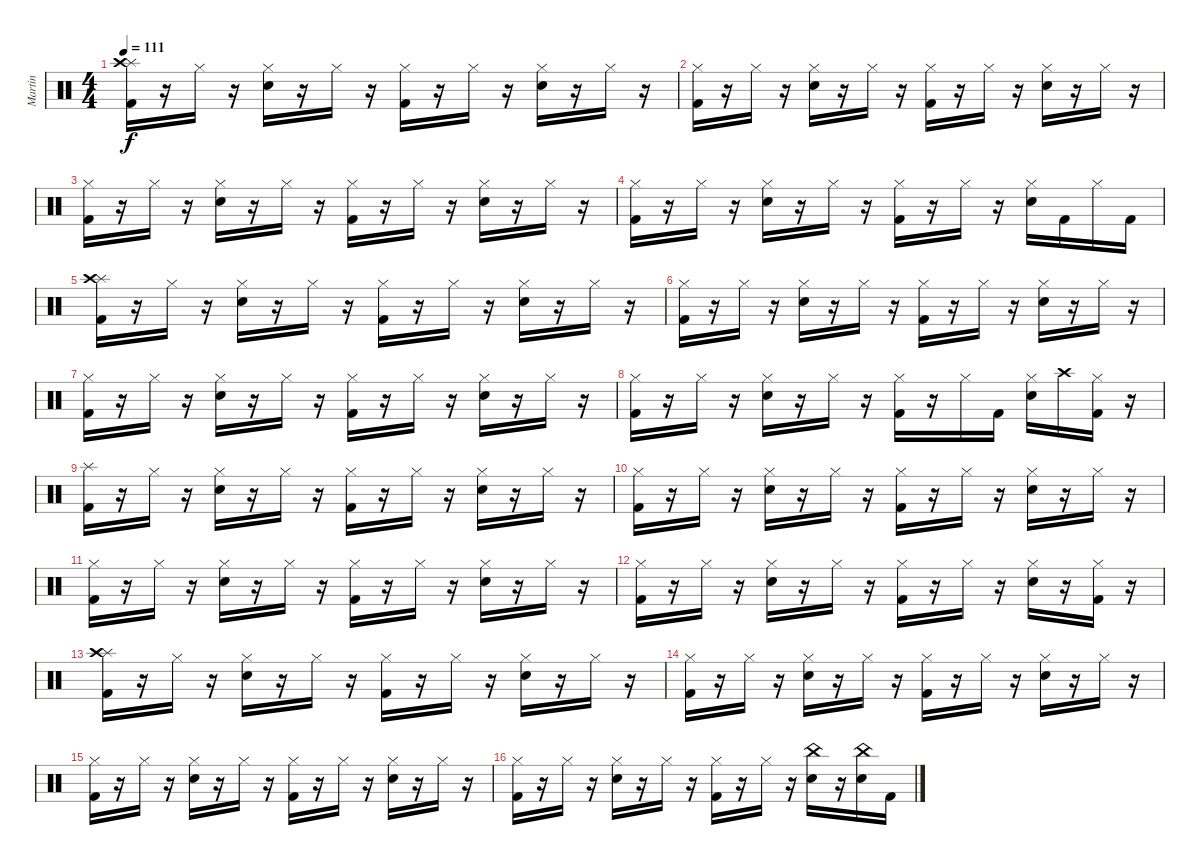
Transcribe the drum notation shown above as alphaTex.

\track ("Martin" "Martin") {instrument percussion}
\staff {score}
\articulation defaults
\ts (4 4)
\tempo 111
\clef neutral
\ks c
("Kick (hit) 2" "Splash (hit)" "Crash high (hit)").16{dy f} r.16 "Hi-Hat (closed)".16 r.16 ("Electric Snare (hit)" "Hi-Hat (closed)").16 r.16 "Hi-Hat (closed)".16 r.16 ("Kick (hit) 2" "Hi-Hat (closed)").16 r.16 "Hi-Hat (closed)".16 r.16 ("Electric Snare (hit)" "Hi-Hat (closed)").16 r.16 "Hi-Hat (closed)".16 r.16 |
("Kick (hit) 2" "Hi-Hat (closed)").16 r.16 "Hi-Hat (closed)".16 r.16 ("Electric Snare (hit)" "Hi-Hat (closed)").16 r.16 "Hi-Hat (closed)".16 r.16 ("Kick (hit) 2" "Hi-Hat (closed)").16 r.16 "Hi-Hat (closed)".16 r.16 ("Electric Snare (hit)" "Hi-Hat (closed)").16 r.16 "Hi-Hat (closed)".16 r.16 |
("Kick (hit) 2" "Hi-Hat (closed)").16 r.16 "Hi-Hat (closed)".16 r.16 ("Electric Snare (hit)" "Hi-Hat (closed)").16 r.16 "Hi-Hat (closed)".16 r.16 ("Kick (hit) 2" "Hi-Hat (closed)").16 r.16 "Hi-Hat (closed)".16 r.16 ("Electric Snare (hit)" "Hi-Hat (closed)").16 r.16 "Hi-Hat (closed)".16 r.16 |
("Kick (hit) 2" "Hi-Hat (closed)").16 r.16 "Hi-Hat (closed)".16 r.16 ("Electric Snare (hit)" "Hi-Hat (closed)").16 r.16 "Hi-Hat (closed)".16 r.16 ("Kick (hit) 2" "Hi-Hat (closed)").16 r.16 "Hi-Hat (closed)".16 r.16 ("Electric Snare (hit)" "Hi-Hat (closed)").16 "Kick (hit) 2".16 "Hi-Hat (closed)".16 "Kick (hit) 2".16 |
("Kick (hit) 2" "Splash (hit)" "Crash high (hit)").16 r.16 "Hi-Hat (closed)".16 r.16 ("Electric Snare (hit)" "Hi-Hat (closed)").16 r.16 "Hi-Hat (closed)".16 r.16 ("Kick (hit) 2" "Hi-Hat (closed)").16 r.16 "Hi-Hat (closed)".16 r.16 ("Electric Snare (hit)" "Hi-Hat (closed)").16 r.16 "Hi-Hat (closed)".16 r.16 |
("Kick (hit) 2" "Hi-Hat (closed)").16 r.16 "Hi-Hat (closed)".16 r.16 ("Electric Snare (hit)" "Hi-Hat (closed)").16 r.16 "Hi-Hat (closed)".16 r.16 ("Kick (hit) 2" "Hi-Hat (closed)").16 r.16 "Hi-Hat (closed)".16 r.16 ("Electric Snare (hit)" "Hi-Hat (closed)").16 r.16 "Hi-Hat (closed)".16 r.16 |
("Kick (hit) 2" "Hi-Hat (closed)").16 r.16 "Hi-Hat (closed)".16 r.16 ("Electric Snare (hit)" "Hi-Hat (closed)").16 r.16 "Hi-Hat (closed)".16 r.16 ("Kick (hit) 2" "Hi-Hat (closed)").16 r.16 "Hi-Hat (closed)".16 r.16 ("Electric Snare (hit)" "Hi-Hat (closed)").16 r.16 "Hi-Hat (closed)".16 r.16 |
("Kick (hit) 2" "Hi-Hat (closed)").16 r.16 "Hi-Hat (closed)".16 r.16 ("Electric Snare (hit)" "Hi-Hat (closed)").16 r.16 "Hi-Hat (closed)".16 r.16 ("Kick (hit) 2" "Hi-Hat (closed)").16 r.16 "Hi-Hat (closed)".16 "Kick (hit) 2".16 ("Electric Snare (hit)" "Hi-Hat (closed)").16 "Crash high (hit)".16 ("Kick (hit) 2" "Hi-Hat (closed)").16 r.16 |
("Kick (hit) 2" "Splash (hit)").16 r.16 "Hi-Hat (closed)".16 r.16 ("Electric Snare (hit)" "Hi-Hat (closed)").16 r.16 "Hi-Hat (closed)".16 r.16 ("Kick (hit) 2" "Hi-Hat (closed)").16 r.16 "Hi-Hat (closed)".16 r.16 ("Electric Snare (hit)" "Hi-Hat (closed)").16 r.16 "Hi-Hat (closed)".16 r.16 |
("Kick (hit) 2" "Hi-Hat (closed)").16 r.16 "Hi-Hat (closed)".16 r.16 ("Electric Snare (hit)" "Hi-Hat (closed)").16 r.16 "Hi-Hat (closed)".16 r.16 ("Kick (hit) 2" "Hi-Hat (closed)").16 r.16 "Hi-Hat (closed)".16 r.16 ("Electric Snare (hit)" "Hi-Hat (closed)").16 r.16 "Hi-Hat (closed)".16 r.16 |
("Kick (hit) 2" "Hi-Hat (closed)").16 r.16 "Hi-Hat (closed)".16 r.16 ("Electric Snare (hit)" "Hi-Hat (closed)").16 r.16 "Hi-Hat (closed)".16 r.16 ("Kick (hit) 2" "Hi-Hat (closed)").16 r.16 "Hi-Hat (closed)".16 r.16 ("Electric Snare (hit)" "Hi-Hat (closed)").16 r.16 "Hi-Hat (closed)".16 r.16 |
("Kick (hit) 2" "Hi-Hat (closed)").16 r.16 "Hi-Hat (closed)".16 r.16 ("Electric Snare (hit)" "Hi-Hat (closed)").16 r.16 "Hi-Hat (closed)".16 r.16 ("Kick (hit) 2" "Hi-Hat (closed)").16 r.16 "Hi-Hat (closed)".16 r.16 ("Electric Snare (hit)" "Hi-Hat (closed)").16 r.16 ("Kick (hit) 2" "Hi-Hat (closed)").16 r.16 |
("Kick (hit) 2" "Splash (hit)" "Crash high (hit)").16 r.16 "Hi-Hat (closed)".16 r.16 ("Electric Snare (hit)" "Hi-Hat (closed)").16 r.16 "Hi-Hat (closed)".16 r.16 ("Kick (hit) 2" "Hi-Hat (closed)").16 r.16 "Hi-Hat (closed)".16 r.16 ("Electric Snare (hit)" "Hi-Hat (closed)").16 r.16 "Hi-Hat (closed)".16 r.16 |
("Kick (hit) 2" "Hi-Hat (closed)").16 r.16 "Hi-Hat (closed)".16 r.16 ("Electric Snare (hit)" "Hi-Hat (closed)").16 r.16 "Hi-Hat (closed)".16 r.16 ("Kick (hit) 2" "Hi-Hat (closed)").16 r.16 "Hi-Hat (closed)".16 r.16 ("Electric Snare (hit)" "Hi-Hat (closed)").16 r.16 "Hi-Hat (closed)".16 r.16 |
("Kick (hit) 2" "Hi-Hat (closed)").16 r.16 "Hi-Hat (closed)".16 r.16 ("Electric Snare (hit)" "Hi-Hat (closed)").16 r.16 "Hi-Hat (closed)".16 r.16 ("Kick (hit) 2" "Hi-Hat (closed)").16 r.16 "Hi-Hat (closed)".16 r.16 ("Electric Snare (hit)" "Hi-Hat (closed)").16 r.16 "Hi-Hat (closed)".16 r.16 |
("Kick (hit) 2" "Hi-Hat (closed)").16 r.16 "Hi-Hat (closed)".16 r.16 ("Electric Snare (hit)" "Hi-Hat (closed)").16 r.16 "Hi-Hat (closed)".16 r.16 ("Kick (hit) 2" "Hi-Hat (closed)").16 r.16 "Hi-Hat (closed)".16 r.16 ("China (hit)" "Electric Snare (hit)").16 r.16 ("China (hit)" "Electric Snare (hit)").16 "Kick (hit) 2".16
